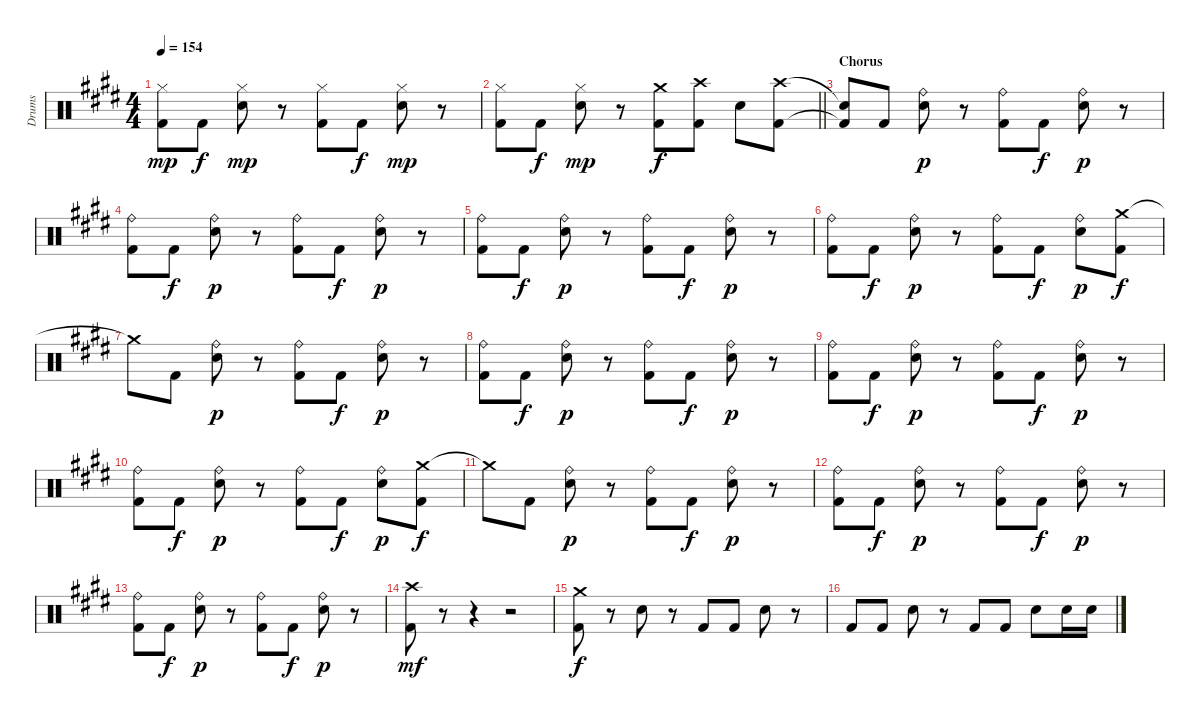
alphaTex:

\track ("Drums" "Drums") {instrument percussion}
\staff {score}
\articulation defaults
\ts (4 4)
\tempo 154
\clef neutral
\ks e
("Hi-Hat (closed)" "Kick (hit) 2").8{dy mp} "Kick (hit) 2".8{dy f} ("Hi-Hat (closed)" "Electric Snare (hit)").8{dy mp} r.8 ("Hi-Hat (closed)" "Kick (hit) 2").8 "Kick (hit) 2".8{dy f} ("Hi-Hat (closed)" "Electric Snare (hit)").8{dy mp} r.8 |
\barLineRight lightlight
("Hi-Hat (closed)" "Kick (hit) 2").8 "Kick (hit) 2".8{dy f} ("Hi-Hat (closed)" "Electric Snare (hit)").8{dy mp} r.8 ("Crash medium (hit)" "Kick (hit) 2").8{dy f} ("Crash high (hit)" "Kick (hit) 2").8 "Electric Snare (hit)".8 ("Crash high (hit)" "Kick (hit) 2").8 |
\section ("" "Chorus")
("Snare (hit)"{t} "Kick (hit) 2"{t}).8 "Kick (hit) 2".8 ("Ride (bell)" "Electric Snare (hit)").8{dy p} r.8 ("Ride (bell)" "Kick (hit) 2").8 "Kick (hit) 2".8{dy f} ("Ride (bell)" "Electric Snare (hit)").8{dy p} r.8 |
("Ride (bell)" "Kick (hit) 2").8 "Kick (hit) 2".8{dy f} ("Ride (bell)" "Electric Snare (hit)").8{dy p} r.8 ("Ride (bell)" "Kick (hit) 2").8 "Kick (hit) 2".8{dy f} ("Ride (bell)" "Electric Snare (hit)").8{dy p} r.8 |
("Ride (bell)" "Kick (hit) 2").8 "Kick (hit) 2".8{dy f} ("Ride (bell)" "Electric Snare (hit)").8{dy p} r.8 ("Ride (bell)" "Kick (hit) 2").8 "Kick (hit) 2".8{dy f} ("Ride (bell)" "Electric Snare (hit)").8{dy p} r.8 |
("Ride (bell)" "Kick (hit) 2").8 "Kick (hit) 2".8{dy f} ("Ride (bell)" "Electric Snare (hit)").8{dy p} r.8 ("Ride (bell)" "Kick (hit) 2").8 "Kick (hit) 2".8{dy f} ("Ride (bell)" "Electric Snare (hit)").8{dy p} ("Crash medium (hit)" "Kick (hit) 2").8{dy f} |
"Crash medium (hit)"{t}.8 "Kick (hit) 2".8 ("Ride (bell)" "Electric Snare (hit)").8{dy p} r.8 ("Ride (bell)" "Kick (hit) 2").8 "Kick (hit) 2".8{dy f} ("Ride (bell)" "Electric Snare (hit)").8{dy p} r.8 |
("Ride (bell)" "Kick (hit) 2").8 "Kick (hit) 2".8{dy f} ("Ride (bell)" "Electric Snare (hit)").8{dy p} r.8 ("Ride (bell)" "Kick (hit) 2").8 "Kick (hit) 2".8{dy f} ("Ride (bell)" "Electric Snare (hit)").8{dy p} r.8 |
("Ride (bell)" "Kick (hit) 2").8 "Kick (hit) 2".8{dy f} ("Ride (bell)" "Electric Snare (hit)").8{dy p} r.8 ("Ride (bell)" "Kick (hit) 2").8 "Kick (hit) 2".8{dy f} ("Ride (bell)" "Electric Snare (hit)").8{dy p} r.8 |
("Ride (bell)" "Kick (hit) 2").8 "Kick (hit) 2".8{dy f} ("Ride (bell)" "Electric Snare (hit)").8{dy p} r.8 ("Ride (bell)" "Kick (hit) 2").8 "Kick (hit) 2".8{dy f} ("Ride (bell)" "Electric Snare (hit)").8{dy p} ("Crash medium (hit)" "Kick (hit) 2").8{dy f} |
"Crash medium (hit)"{t}.8 "Kick (hit) 2".8 ("Ride (bell)" "Electric Snare (hit)").8{dy p} r.8 ("Ride (bell)" "Kick (hit) 2").8 "Kick (hit) 2".8{dy f} ("Ride (bell)" "Electric Snare (hit)").8{dy p} r.8 |
("Ride (bell)" "Kick (hit) 2").8 "Kick (hit) 2".8{dy f} ("Ride (bell)" "Electric Snare (hit)").8{dy p} r.8 ("Ride (bell)" "Kick (hit) 2").8 "Kick (hit) 2".8{dy f} ("Ride (bell)" "Electric Snare (hit)").8{dy p} r.8 |
("Ride (bell)" "Kick (hit) 2").8 "Kick (hit) 2".8{dy f} ("Ride (bell)" "Electric Snare (hit)").8{dy p} r.8 ("Ride (bell)" "Kick (hit) 2").8 "Kick (hit) 2".8{dy f} ("Ride (bell)" "Electric Snare (hit)").8{dy p} r.8 |
("Crash high (hit)" "Kick (hit) 2").8{dy mf} r.8 r.4 r.2 |
("Crash medium (hit)" "Kick (hit) 2").8{dy f} r.8 "Electric Snare (hit)".8 r.8 "Kick (hit) 2".8 "Kick (hit) 2".8 "Electric Snare (hit)".8 r.8 |
"Kick (hit) 2".8 "Kick (hit) 2".8 "Electric Snare (hit)".8 r.8 "Kick (hit) 2".8 "Kick (hit) 2".8 "Electric Snare (hit)".8 "Electric Snare (hit)".16 "Electric Snare (hit)".16
